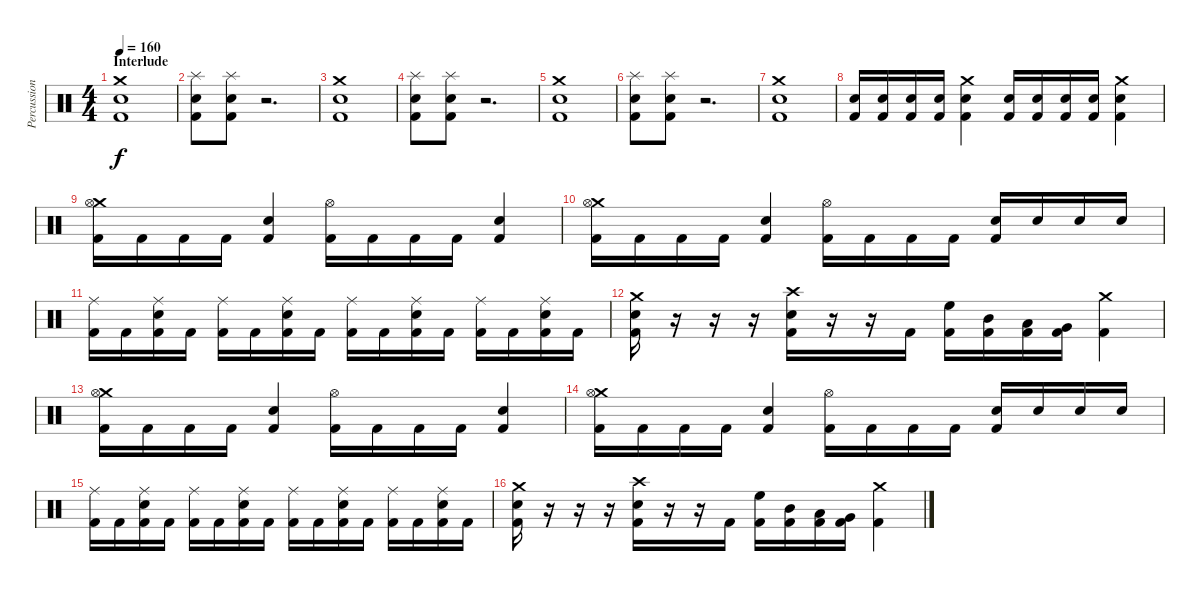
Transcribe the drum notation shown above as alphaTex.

\track ("Percussions" "Percussion") {instrument percussion}
\staff {score}
\articulation defaults
\ts (4 4)
\section ("" "Interlude")
\tempo 160
\clef neutral
\ks c
("Crash medium (hit)" "Electric Snare (hit)" "Kick (hit) 2").1{dy f} |
("Splash (hit)" "Electric Snare (hit)" "Kick (hit) 2").8 ("Splash (hit)" "Electric Snare (hit)" "Kick (hit) 2").8 r.2{d} |
("Crash medium (hit)" "Electric Snare (hit)" "Kick (hit) 2").1 |
("Splash (hit)" "Electric Snare (hit)" "Kick (hit) 2").8 ("Splash (hit)" "Electric Snare (hit)" "Kick (hit) 2").8 r.2{d} |
("Crash medium (hit)" "Electric Snare (hit)" "Kick (hit) 2").1 |
("Splash (hit)" "Electric Snare (hit)" "Kick (hit) 2").8 ("Splash (hit)" "Electric Snare (hit)" "Kick (hit) 2").8 r.2{d} |
("Crash medium (hit)" "Electric Snare (hit)" "Kick (hit) 2").1 |
("Electric Snare (hit)" "Kick (hit) 2").16 ("Electric Snare (hit)" "Kick (hit) 2").16 ("Electric Snare (hit)" "Kick (hit) 2").16 ("Electric Snare (hit)" "Kick (hit) 2").16 ("Crash medium (hit)" "Electric Snare (hit)" "Kick (hit) 2").4 ("Electric Snare (hit)" "Kick (hit) 2").16 ("Electric Snare (hit)" "Kick (hit) 2").16 ("Electric Snare (hit)" "Kick (hit) 2").16 ("Electric Snare (hit)" "Kick (hit) 2").16 ("Crash medium (hit)" "Electric Snare (hit)" "Kick (hit) 2").4 |
("Crash medium (hit)" "Hi-Hat (open)" "Kick (hit) 2").16 "Kick (hit) 2".16 "Kick (hit) 2".16 "Kick (hit) 2".16 ("Electric Snare (hit)" "Kick (hit) 2").4 ("Hi-Hat (open)" "Kick (hit) 2").16 "Kick (hit) 2".16 "Kick (hit) 2".16 "Kick (hit) 2".16 ("Electric Snare (hit)" "Kick (hit) 2").4 |
("Crash medium (hit)" "Hi-Hat (open)" "Kick (hit) 2").16 "Kick (hit) 2".16 "Kick (hit) 2".16 "Kick (hit) 2".16 ("Electric Snare (hit)" "Kick (hit) 2").4 ("Hi-Hat (open)" "Kick (hit) 2").16 "Kick (hit) 2".16 "Kick (hit) 2".16 "Kick (hit) 2".16 ("Electric Snare (hit)" "Kick (hit) 2").16 "Electric Snare (hit)".16 "Electric Snare (hit)".16 "Electric Snare (hit)".16 |
("Ride (middle)" "Kick (hit) 2").16 "Kick (hit) 2".16 ("Electric Snare (hit)" "Ride (middle)" "Kick (hit) 2").16 "Kick (hit) 2".16 ("Ride (middle)" "Kick (hit) 2").16 "Kick (hit) 2".16 ("Electric Snare (hit)" "Ride (middle)" "Kick (hit) 2").16 "Kick (hit) 2".16 ("Ride (middle)" "Kick (hit) 2").16 "Kick (hit) 2".16 ("Electric Snare (hit)" "Ride (middle)" "Kick (hit) 2").16 "Kick (hit) 2".16 ("Ride (middle)" "Kick (hit) 2").16 "Kick (hit) 2".16 ("Electric Snare (hit)" "Ride (middle)" "Kick (hit) 2").16 "Kick (hit) 2".16 |
("Electric Snare (hit)" "Crash medium (hit)" "Kick (hit) 2").16 r.16 r.16 r.16 ("Electric Snare (hit)" "Crash high (hit)" "Kick (hit) 2").16 r.16 r.16 "Kick (hit) 2".16 ("High Floor Tom (hit)" "Kick (hit) 2").16 ("Mid Tom (hit)" "Kick (hit) 2").16 ("Low Tom (hit)" "Kick (hit) 2").16 ("Very Low Tom (hit)" "Kick (hit) 2").16 ("Crash medium (hit)" "Kick (hit) 2").4 |
("Crash medium (hit)" "Hi-Hat (open)" "Kick (hit) 2").16 "Kick (hit) 2".16 "Kick (hit) 2".16 "Kick (hit) 2".16 ("Electric Snare (hit)" "Kick (hit) 2").4 ("Hi-Hat (open)" "Kick (hit) 2").16 "Kick (hit) 2".16 "Kick (hit) 2".16 "Kick (hit) 2".16 ("Electric Snare (hit)" "Kick (hit) 2").4 |
("Crash medium (hit)" "Hi-Hat (open)" "Kick (hit) 2").16 "Kick (hit) 2".16 "Kick (hit) 2".16 "Kick (hit) 2".16 ("Electric Snare (hit)" "Kick (hit) 2").4 ("Hi-Hat (open)" "Kick (hit) 2").16 "Kick (hit) 2".16 "Kick (hit) 2".16 "Kick (hit) 2".16 ("Electric Snare (hit)" "Kick (hit) 2").16 "Electric Snare (hit)".16 "Electric Snare (hit)".16 "Electric Snare (hit)".16 |
("Ride (middle)" "Kick (hit) 2").16 "Kick (hit) 2".16 ("Electric Snare (hit)" "Ride (middle)" "Kick (hit) 2").16 "Kick (hit) 2".16 ("Ride (middle)" "Kick (hit) 2").16 "Kick (hit) 2".16 ("Electric Snare (hit)" "Ride (middle)" "Kick (hit) 2").16 "Kick (hit) 2".16 ("Ride (middle)" "Kick (hit) 2").16 "Kick (hit) 2".16 ("Electric Snare (hit)" "Ride (middle)" "Kick (hit) 2").16 "Kick (hit) 2".16 ("Ride (middle)" "Kick (hit) 2").16 "Kick (hit) 2".16 ("Electric Snare (hit)" "Ride (middle)" "Kick (hit) 2").16 "Kick (hit) 2".16 |
("Electric Snare (hit)" "Crash medium (hit)" "Kick (hit) 2").16 r.16 r.16 r.16 ("Electric Snare (hit)" "Crash high (hit)" "Kick (hit) 2").16 r.16 r.16 "Kick (hit) 2".16 ("High Floor Tom (hit)" "Kick (hit) 2").16 ("Mid Tom (hit)" "Kick (hit) 2").16 ("Low Tom (hit)" "Kick (hit) 2").16 ("Very Low Tom (hit)" "Kick (hit) 2").16 ("Crash medium (hit)" "Kick (hit) 2").4
